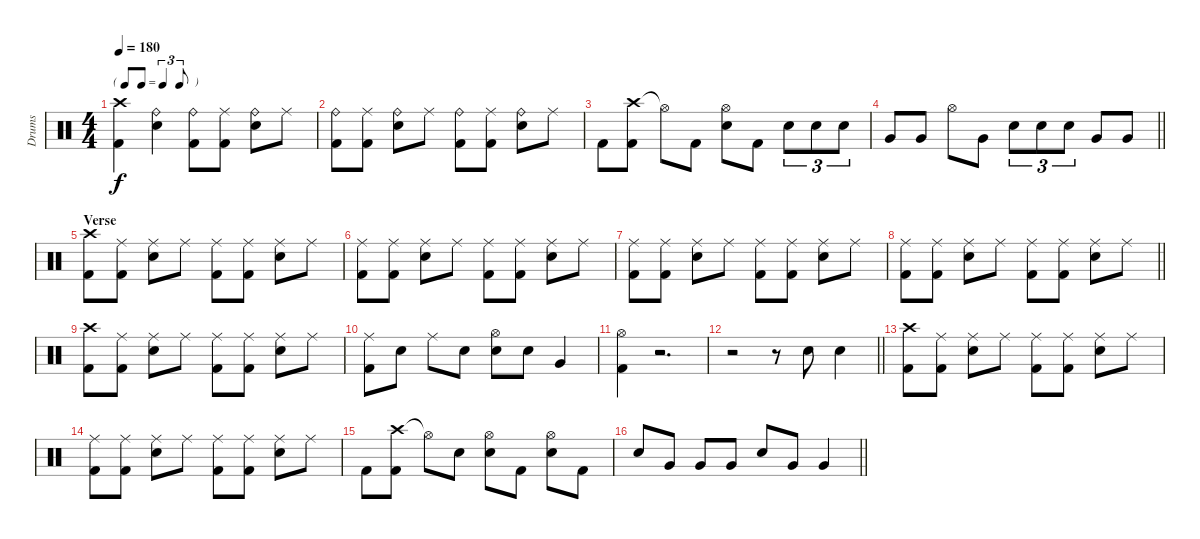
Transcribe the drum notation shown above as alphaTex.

\track ("Drums" "Drums") {instrument percussion}
\staff {score}
\articulation defaults
\ts (4 4)
\tf triplet8th
\tempo 180
\clef neutral
\ks c
("Crash high (hit)" "Kick (hit) 2").4{dy f} ("Ride (bell)" "Snare (hit) 2").4 ("Ride (bell)" "Kick (hit) 2").8 ("Ride (middle)" "Kick (hit) 2").8 ("Ride (bell)" "Snare (hit) 2").8 "Ride (middle)".8 |
("Ride (bell)" "Kick (hit) 2").8 ("Ride (middle)" "Kick (hit) 2").8 ("Ride (bell)" "Snare (hit) 2").8 "Ride (middle)".8 ("Ride (bell)" "Kick (hit) 2").8 ("Ride (middle)" "Kick (hit) 2").8 ("Ride (bell)" "Snare (hit) 2").8 "Ride (middle)".8 |
"Kick (hit) 2".8 ("Crash high (hit)" "Kick (hit) 2").8 "Hi-Hat (open)"{t}.8 "Kick (hit) 2".8 ("Hi-Hat (open)" "Snare (hit) 2").8 "Kick (hit) 2".8 "Snare (hit) 2".8{tu (3 2)} "Snare (hit) 2".8{tu (3 2)} "Snare (hit) 2".8{tu (3 2)} |
\barLineRight lightlight "Very Low Tom (hit)".8 "Very Low Tom (hit)".8 "Hi-Hat (open)".8 "Very Low Tom (hit)".8 "Snare (hit) 2".8{tu (3 2)} "Snare (hit) 2".8{tu (3 2)} "Snare (hit) 2".8{tu (3 2)} "Very Low Tom (hit)".8 "Very Low Tom (hit)".8
|
\section ("" "Verse")
("Crash high (hit)" "Kick (hit) 2").8 ("Ride (middle)" "Kick (hit) 2").8 ("Ride (middle)" "Snare (hit) 2").8 "Ride (middle)".8 ("Ride (middle)" "Kick (hit) 2").8 ("Ride (middle)" "Kick (hit) 2").8 ("Ride (middle)" "Snare (hit) 2").8 "Ride (middle)".8 |
("Ride (middle)" "Kick (hit) 2").8 ("Ride (middle)" "Kick (hit) 2").8 ("Ride (middle)" "Snare (hit) 2").8 "Ride (middle)".8 ("Ride (middle)" "Kick (hit) 2").8 ("Ride (middle)" "Kick (hit) 2").8 ("Ride (middle)" "Snare (hit) 2").8 "Ride (middle)".8 |
("Ride (middle)" "Kick (hit) 2").8 ("Ride (middle)" "Kick (hit) 2").8 ("Ride (middle)" "Snare (hit) 2").8 "Ride (middle)".8 ("Ride (middle)" "Kick (hit) 2").8 ("Ride (middle)" "Kick (hit) 2").8 ("Ride (middle)" "Snare (hit) 2").8 "Ride (middle)".8 |
\barLineRight lightlight
("Ride (middle)" "Kick (hit) 2").8 ("Ride (middle)" "Kick (hit) 2").8 ("Ride (middle)" "Snare (hit) 2").8 "Ride (middle)".8 ("Ride (middle)" "Kick (hit) 2").8 ("Ride (middle)" "Kick (hit) 2").8 ("Ride (middle)" "Snare (hit) 2").8 "Ride (middle)".8 |
("Crash high (hit)" "Kick (hit) 2").8 ("Ride (middle)" "Kick (hit) 2").8 ("Ride (middle)" "Snare (hit) 2").8 "Ride (middle)".8 ("Ride (middle)" "Kick (hit) 2").8 ("Ride (middle)" "Kick (hit) 2").8 ("Ride (middle)" "Snare (hit) 2").8 "Ride (middle)".8 |
("Ride (middle)" "Kick (hit) 2").8 "Snare (hit) 2".8 "Ride (middle)".8 "Snare (hit) 2".8 ("Hi-Hat (open)" "Snare (hit) 2").8 "Snare (hit) 2".8 "Very Low Tom (hit)".4 |
("Hi-Hat (open)" "Kick (hit) 2").4 r.2{d} |
\barLineRight lightlight
r.2 r.8 "Snare (hit) 2".8 "Snare (hit) 2".4 |
("Crash high (hit)" "Kick (hit) 2").8 ("Ride (middle)" "Kick (hit) 2").8 ("Ride (middle)" "Snare (hit) 2").8 "Ride (middle)".8 ("Ride (middle)" "Kick (hit) 2").8 ("Ride (middle)" "Kick (hit) 2").8 ("Ride (middle)" "Snare (hit) 2").8 "Ride (middle)".8 |
("Ride (middle)" "Kick (hit) 2").8 ("Ride (middle)" "Kick (hit) 2").8 ("Ride (middle)" "Snare (hit) 2").8 "Ride (middle)".8 ("Ride (middle)" "Kick (hit) 2").8 ("Ride (middle)" "Kick (hit) 2").8 ("Ride (middle)" "Snare (hit) 2").8 "Ride (middle)".8 |
"Kick (hit) 2".8 ("Crash high (hit)" "Kick (hit) 2").8 "Hi-Hat (open)"{t}.8 "Snare (hit) 2".8 ("Hi-Hat (open)" "Snare (hit) 2").8 "Kick (hit) 2".8 ("Hi-Hat (open)" "Snare (hit) 2").8 "Kick (hit) 2".8 |
\barLineRight lightlight "Snare (hit) 2".8 "Very Low Tom (hit)".8 "Very Low Tom (hit)".8 "Very Low Tom (hit)".8 "Snare (hit) 2".8 "Very Low Tom (hit)".8 "Very Low Tom (hit)".4
